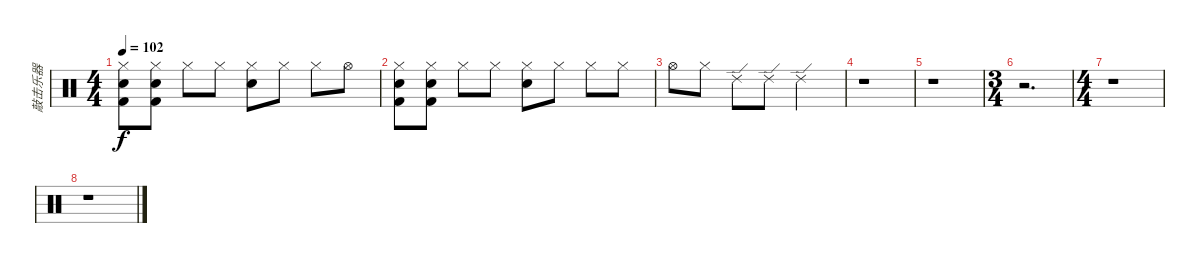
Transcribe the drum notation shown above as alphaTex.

\track ("敲击乐器" "敲击乐器") {instrument percussion}
\staff {score}
\articulation defaults
\ts (4 4)
\tempo 102
\clef neutral
\ks c
("Hi-Hat (closed)" "Kick (hit) 2" "Snare (hit)").8{dy f} ("Hi-Hat (closed)" "Kick (hit) 2" "Snare (hit)").8 "Hi-Hat (closed)".8 "Hi-Hat (closed)".8 ("Hi-Hat (closed)" "Metronome (bell)").8 "Hi-Hat (closed)".8 "Hi-Hat (closed)".8 "Hi-Hat (open)".8 |
("Hi-Hat (closed)" "Kick (hit) 2" "Snare (hit)").8 ("Hi-Hat (closed)" "Kick (hit) 2" "Snare (hit)").8 "Hi-Hat (closed)".8 "Hi-Hat (closed)".8 ("Hi-Hat (closed)" "Metronome (bell)").8 "Hi-Hat (closed)".8 "Hi-Hat (closed)".8 "Hi-Hat (closed)".8 |
"Hi-Hat (open)".8 "Hi-Hat (closed)".8 "Ride (edge) 2".8 "Ride (edge) 2".8 "Ride (edge) 2".2 |
r.1 |
r.1 |
\ts (3 4)
r.2{d} |
\ts (4 4)
r.1 |
r.1
